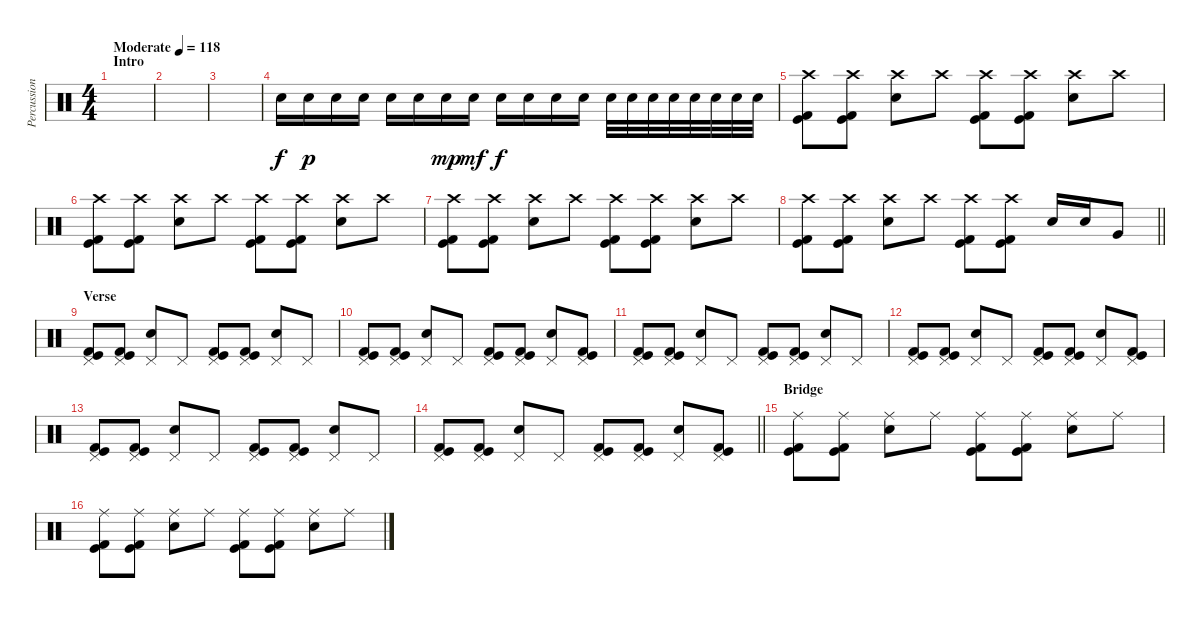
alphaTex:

\track ("Percussion" "Percussion") {instrument percussion}
\staff {score}
\articulation defaults
\ts (4 4)
\section ("" "Intro")
\tempo (118 "Moderate")
\clef neutral
\ks c
|
|
|
"Electric Snare (hit)".16 "Electric Snare (hit)".16{dy p} "Electric Snare (hit)".16 "Electric Snare (hit)".16 "Electric Snare (hit)".16 "Electric Snare (hit)".16 "Electric Snare (hit)".16{dy mp} "Electric Snare (hit)".16{dy mf} "Electric Snare (hit)".16{dy f} "Electric Snare (hit)".16 "Electric Snare (hit)".16 "Electric Snare (hit)".16 "Electric Snare (hit)".32 "Electric Snare (hit)".32 "Electric Snare (hit)".32 "Electric Snare (hit)".32 "Electric Snare (hit)".32 "Electric Snare (hit)".32 "Electric Snare (hit)".32 "Electric Snare (hit)".32 |
("Crash high (hit)" "Kick (hit) 2" "Kick (hit)").8 ("Crash high (hit)" "Kick (hit) 2" "Kick (hit)").8 ("Crash high (hit)" "Electric Snare (hit)").8 "Crash high (hit)".8 ("Crash high (hit)" "Kick (hit) 2" "Kick (hit)").8 ("Crash high (hit)" "Kick (hit) 2" "Kick (hit)").8 ("Crash high (hit)" "Electric Snare (hit)").8 "Crash high (hit)".8 |
("Crash high (hit)" "Kick (hit) 2" "Kick (hit)").8 ("Crash high (hit)" "Kick (hit) 2" "Kick (hit)").8 ("Crash high (hit)" "Electric Snare (hit)").8 "Crash high (hit)".8 ("Crash high (hit)" "Kick (hit) 2" "Kick (hit)").8 ("Crash high (hit)" "Kick (hit) 2" "Kick (hit)").8 ("Crash high (hit)" "Electric Snare (hit)").8 "Crash high (hit)".8 |
("Crash high (hit)" "Kick (hit) 2" "Kick (hit)").8 ("Crash high (hit)" "Kick (hit) 2" "Kick (hit)").8 ("Crash high (hit)" "Electric Snare (hit)").8 "Crash high (hit)".8 ("Crash high (hit)" "Kick (hit) 2" "Kick (hit)").8 ("Crash high (hit)" "Kick (hit) 2" "Kick (hit)").8 ("Crash high (hit)" "Electric Snare (hit)").8 "Crash high (hit)".8 |
\barLineRight lightlight
("Crash high (hit)" "Kick (hit) 2" "Kick (hit)").8 ("Crash high (hit)" "Kick (hit) 2" "Kick (hit)").8 ("Crash high (hit)" "Electric Snare (hit)").8 "Crash high (hit)".8 ("Crash high (hit)" "Kick (hit) 2" "Kick (hit)").8 ("Crash high (hit)" "Kick (hit) 2" "Kick (hit)").8 "Electric Snare (hit)".16 "Electric Snare (hit)".16 "Very Low Tom (hit)".8 |
\section ("" "Verse")
("Pedal Hi-Hat (hit)" "Kick (hit) 2" "Kick (hit)").8 ("Pedal Hi-Hat (hit)" "Kick (hit) 2" "Kick (hit)").8 ("Pedal Hi-Hat (hit)" "Electric Snare (hit)").8 "Pedal Hi-Hat (hit)".8 ("Pedal Hi-Hat (hit)" "Kick (hit) 2" "Kick (hit)").8 ("Pedal Hi-Hat (hit)" "Kick (hit) 2" "Kick (hit)").8 ("Pedal Hi-Hat (hit)" "Electric Snare (hit)").8 "Pedal Hi-Hat (hit)".8 |
("Pedal Hi-Hat (hit)" "Kick (hit) 2" "Kick (hit)").8 ("Pedal Hi-Hat (hit)" "Kick (hit) 2" "Kick (hit)").8 ("Pedal Hi-Hat (hit)" "Electric Snare (hit)").8 "Pedal Hi-Hat (hit)".8 ("Pedal Hi-Hat (hit)" "Kick (hit) 2" "Kick (hit)").8 ("Pedal Hi-Hat (hit)" "Kick (hit) 2" "Kick (hit)").8 ("Pedal Hi-Hat (hit)" "Electric Snare (hit)").8 ("Pedal Hi-Hat (hit)" "Kick (hit) 2" "Kick (hit)").8 |
("Pedal Hi-Hat (hit)" "Kick (hit) 2" "Kick (hit)").8 ("Pedal Hi-Hat (hit)" "Kick (hit) 2" "Kick (hit)").8 ("Pedal Hi-Hat (hit)" "Electric Snare (hit)").8 "Pedal Hi-Hat (hit)".8 ("Pedal Hi-Hat (hit)" "Kick (hit) 2" "Kick (hit)").8 ("Pedal Hi-Hat (hit)" "Kick (hit) 2" "Kick (hit)").8 ("Pedal Hi-Hat (hit)" "Electric Snare (hit)").8 "Pedal Hi-Hat (hit)".8 |
("Pedal Hi-Hat (hit)" "Kick (hit) 2" "Kick (hit)").8 ("Pedal Hi-Hat (hit)" "Kick (hit) 2" "Kick (hit)").8 ("Pedal Hi-Hat (hit)" "Electric Snare (hit)").8 "Pedal Hi-Hat (hit)".8 ("Pedal Hi-Hat (hit)" "Kick (hit) 2" "Kick (hit)").8 ("Pedal Hi-Hat (hit)" "Kick (hit) 2" "Kick (hit)").8 ("Pedal Hi-Hat (hit)" "Electric Snare (hit)").8 ("Pedal Hi-Hat (hit)" "Kick (hit) 2" "Kick (hit)").8 |
("Pedal Hi-Hat (hit)" "Kick (hit) 2" "Kick (hit)").8 ("Pedal Hi-Hat (hit)" "Kick (hit) 2" "Kick (hit)").8 ("Pedal Hi-Hat (hit)" "Electric Snare (hit)").8 "Pedal Hi-Hat (hit)".8 ("Pedal Hi-Hat (hit)" "Kick (hit) 2" "Kick (hit)").8 ("Pedal Hi-Hat (hit)" "Kick (hit) 2" "Kick (hit)").8 ("Pedal Hi-Hat (hit)" "Electric Snare (hit)").8 "Pedal Hi-Hat (hit)".8 |
\barLineRight lightlight
("Pedal Hi-Hat (hit)" "Kick (hit) 2" "Kick (hit)").8 ("Pedal Hi-Hat (hit)" "Kick (hit) 2" "Kick (hit)").8 ("Pedal Hi-Hat (hit)" "Electric Snare (hit)").8 "Pedal Hi-Hat (hit)".8 ("Pedal Hi-Hat (hit)" "Kick (hit) 2" "Kick (hit)").8 ("Pedal Hi-Hat (hit)" "Kick (hit) 2" "Kick (hit)").8 ("Pedal Hi-Hat (hit)" "Electric Snare (hit)").8 ("Pedal Hi-Hat (hit)" "Kick (hit) 2" "Kick (hit)").8 |
\section ("" "Bridge")
("Ride (middle)" "Kick (hit) 2" "Kick (hit)").8 ("Ride (middle)" "Kick (hit) 2" "Kick (hit)").8 ("Ride (middle)" "Electric Snare (hit)").8 "Ride (middle)".8 ("Ride (middle)" "Kick (hit) 2" "Kick (hit)").8 ("Ride (middle)" "Kick (hit) 2" "Kick (hit)").8 ("Ride (middle)" "Electric Snare (hit)").8 "Ride (middle)".8 |
("Ride (middle)" "Kick (hit) 2" "Kick (hit)").8 ("Ride (middle)" "Kick (hit) 2" "Kick (hit)").8 ("Ride (middle)" "Electric Snare (hit)").8 "Ride (middle)".8 ("Ride (middle)" "Kick (hit) 2" "Kick (hit)").8 ("Ride (middle)" "Kick (hit) 2" "Kick (hit)").8 ("Ride (middle)" "Electric Snare (hit)").8 "Ride (middle)".8
